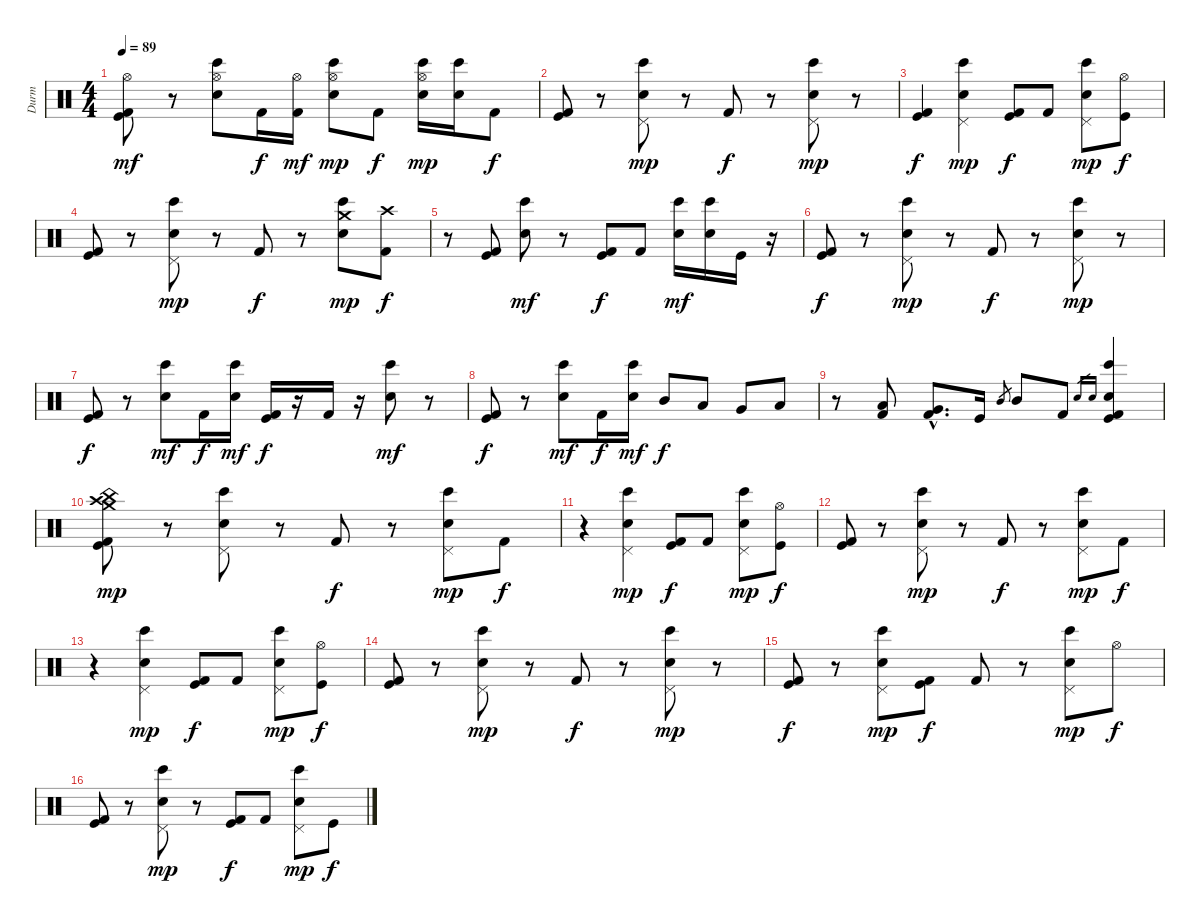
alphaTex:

\track ("Durm" "Durm") {instrument percussion}
\staff {score}
\articulation defaults
\ts (4 4)
\tempo 89
\clef neutral
\ks c
("Hi-Hat (open)" "Kick (hit) 2" "Kick (hit)").8{dy mf} r.8 ("Hi-Hat (open)" "Bongo High (hit)" "Electric Snare (hit)").8 "Kick (hit) 2".16{dy f} ("Hi-Hat (open)" "Kick (hit) 2").16{dy mf} ("Hi-Hat (open)" "Bongo High (hit)" "Electric Snare (hit)").8{dy mp} "Kick (hit) 2".8{dy f} ("Hi-Hat (open)" "Bongo High (hit)" "Electric Snare (hit)").16{dy mp} ("Bongo High (hit)" "Electric Snare (hit)").16 "Kick (hit) 2".8{dy f} |
("Kick (hit)" "Kick (hit) 2").8 r.8 ("Pedal Hi-Hat (hit)" "Electric Snare (hit)" "Bongo High (hit)").8{dy mp} r.8 "Kick (hit) 2".8{dy f} r.8 ("Pedal Hi-Hat (hit)" "Electric Snare (hit)" "Bongo High (hit)").8{dy mp} r.8 |
("Kick (hit) 2" "Kick (hit)").4{dy f} ("Pedal Hi-Hat (hit)" "Electric Snare (hit)" "Bongo High (hit)").4{dy mp} ("Kick (hit) 2" "Kick (hit)").8{dy f} "Kick (hit) 2".8 ("Pedal Hi-Hat (hit)" "Electric Snare (hit)" "Bongo High (hit)").8{dy mp} ("Hi-Hat (open)" "Kick (hit)").8{dy f} |
("Kick (hit)" "Kick (hit) 2").8 r.8 ("Pedal Hi-Hat (hit)" "Electric Snare (hit)" "Bongo High (hit)").8{dy mp} r.8 "Kick (hit) 2".8{dy f} r.8 ("Crash medium (hit)" "Electric Snare (hit)" "Bongo High (hit)").8{dy mp} ("Crash high (hit)" "Kick (hit) 2").8{dy f} |
r.8 ("Kick (hit) 2" "Kick (hit)").8 ("Bongo High (hit)" "Electric Snare (hit)").8{dy mf} r.8 ("Kick (hit) 2" "Kick (hit)").8{dy f} "Kick (hit) 2".8 ("Electric Snare (hit)" "Bongo High (hit)").16{dy mf} ("Electric Snare (hit)" "Bongo High (hit)").16 "Kick (hit)".16 r.16 |
("Kick (hit)" "Kick (hit) 2").8{dy f} r.8 ("Pedal Hi-Hat (hit)" "Electric Snare (hit)" "Bongo High (hit)").8{dy mp} r.8 "Kick (hit) 2".8{dy f} r.8 ("Pedal Hi-Hat (hit)" "Electric Snare (hit)" "Bongo High (hit)").8{dy mp} r.8 |
("Kick (hit) 2" "Kick (hit)").8{dy f} r.8 ("Bongo High (hit)" "Electric Snare (hit)").8{dy mf} "Kick (hit) 2".16{dy f} ("Electric Snare (hit)" "Bongo High (hit)").16{dy mf} ("Kick (hit) 2" "Kick (hit)").16{dy f} r.16 "Kick (hit) 2".16 r.16 ("Bongo High (hit)" "Electric Snare (hit)").8{dy mf} r.8 |
("Kick (hit)" "Kick (hit) 2").8{dy f} r.8 ("Electric Snare (hit)" "Bongo High (hit)").8{dy mf} "Kick (hit) 2".16{dy f} ("Electric Snare (hit)" "Bongo High (hit)").16{dy mf} "Mid Tom (hit)".8{dy f} "Low Tom (hit)".8 "Very Low Tom (hit)".8 "Low Floor Tom (hit)".8 |
r.8 ("Low Tom (hit)" "Kick (hit) 2").8 ("Very Low Tom (hit)"{hac} "Kick (hit) 2"{hac}).8{d} "Kick (hit)".16 "Mid Tom (hit)"{sl}.8{gr} "Mid Tom (hit)".8 "Kick (hit) 2".8 "Snare (hit)".16{gr} "Electric Snare (hit)".16{gr} ("Bongo High (hit)" "Electric Snare (hit)" "Kick (hit) 2" "Kick (hit)").4 |
("China (hit)" "Crash high (hit)" "Kick (hit)" "Kick (hit) 2" "Crash medium (hit)").8{dy mp} r.8 ("Pedal Hi-Hat (hit)" "Electric Snare (hit)" "Bongo High (hit)").8 r.8 "Kick (hit) 2".8{dy f} r.8 ("Pedal Hi-Hat (hit)" "Electric Snare (hit)" "Bongo High (hit)").8{dy mp} "Kick (hit) 2".8{dy f} |
r.4 ("Pedal Hi-Hat (hit)" "Electric Snare (hit)" "Bongo High (hit)").4{dy mp} ("Kick (hit) 2" "Kick (hit)").8{dy f} "Kick (hit) 2".8 ("Pedal Hi-Hat (hit)" "Electric Snare (hit)" "Bongo High (hit)").8{dy mp} ("Hi-Hat (open)" "Kick (hit)").8{dy f} |
("Kick (hit)" "Kick (hit) 2").8 r.8 ("Pedal Hi-Hat (hit)" "Electric Snare (hit)" "Bongo High (hit)").8{dy mp} r.8 "Kick (hit) 2".8{dy f} r.8 ("Pedal Hi-Hat (hit)" "Electric Snare (hit)" "Bongo High (hit)").8{dy mp} "Kick (hit) 2".8{dy f} |
r.4 ("Pedal Hi-Hat (hit)" "Electric Snare (hit)" "Bongo High (hit)").4{dy mp} ("Kick (hit) 2" "Kick (hit)").8{dy f} "Kick (hit) 2".8 ("Pedal Hi-Hat (hit)" "Electric Snare (hit)" "Bongo High (hit)").8{dy mp} ("Hi-Hat (open)" "Kick (hit)").8{dy f} |
("Kick (hit)" "Kick (hit) 2").8 r.8 ("Pedal Hi-Hat (hit)" "Electric Snare (hit)" "Bongo High (hit)").8{dy mp} r.8 "Kick (hit) 2".8{dy f} r.8 ("Pedal Hi-Hat (hit)" "Electric Snare (hit)" "Bongo High (hit)").8{dy mp} r.8 |
("Kick (hit)" "Kick (hit) 2").8{dy f} r.8 ("Pedal Hi-Hat (hit)" "Electric Snare (hit)" "Bongo High (hit)").8{dy mp} ("Kick (hit) 2" "Kick (hit)").8{dy f} "Kick (hit) 2".8 r.8 ("Pedal Hi-Hat (hit)" "Electric Snare (hit)" "Bongo High (hit)").8{dy mp} "Hi-Hat (open)".8{dy f} |
("Kick (hit)" "Kick (hit) 2").8 r.8 ("Pedal Hi-Hat (hit)" "Electric Snare (hit)" "Bongo High (hit)").8{dy mp} r.8 ("Kick (hit)" "Kick (hit) 2").8{dy f} "Kick (hit) 2".8 ("Pedal Hi-Hat (hit)" "Electric Snare (hit)" "Bongo High (hit)").8{dy mp} "Kick (hit)".8{dy f}
